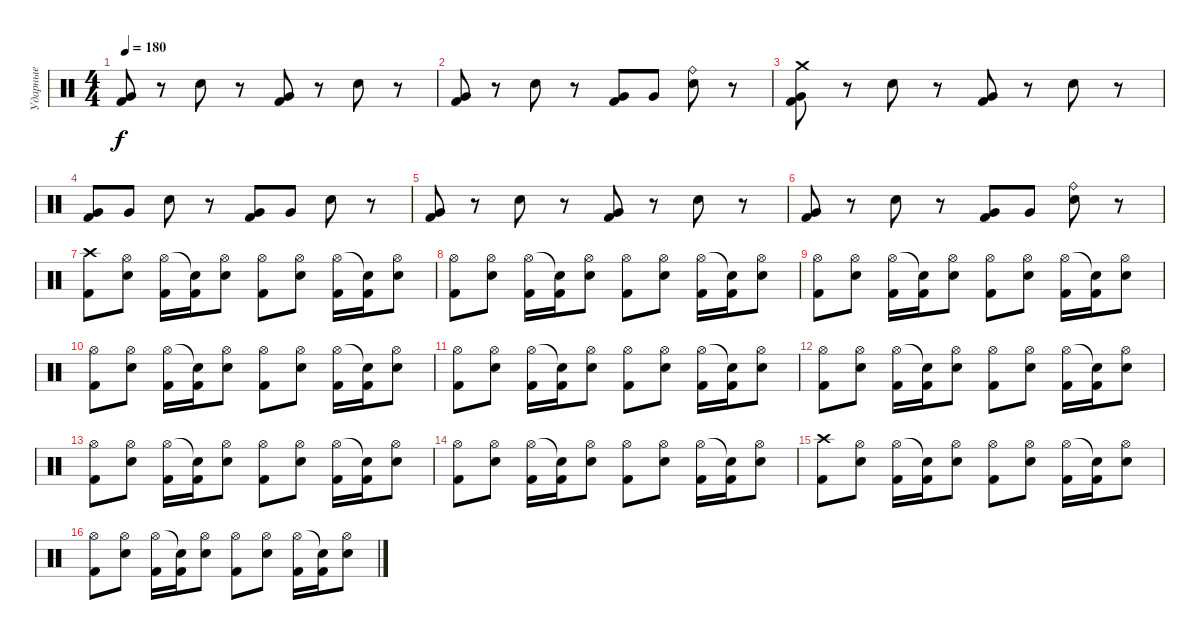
\track ("Ударные" "Ударные") {instrument percussion}
\staff {score}
\articulation defaults
\ts (4 4)
\tempo 180
\clef neutral
\ks c
("Very Low Tom (hit)" "Kick (hit) 2").8{dy f} r.8 "Electric Snare (hit)".8 r.8 ("Very Low Tom (hit)" "Kick (hit) 2").8 r.8 "Electric Snare (hit)".8 r.8 |
("Very Low Tom (hit)" "Kick (hit) 2").8 r.8 "Electric Snare (hit)".8 r.8 ("Very Low Tom (hit)" "Kick (hit) 2").8 "Very Low Tom (hit)".8 ("Ride (bell)" "Electric Snare (hit)").8 r.8 |
("Crash medium (hit)" "Very Low Tom (hit)" "Kick (hit) 2").8 r.8 "Electric Snare (hit)".8 r.8 ("Very Low Tom (hit)" "Kick (hit) 2").8 r.8 "Electric Snare (hit)".8 r.8 |
("Very Low Tom (hit)" "Kick (hit) 2").8 "Very Low Tom (hit)".8 "Electric Snare (hit)".8 r.8 ("Very Low Tom (hit)" "Kick (hit) 2").8 "Very Low Tom (hit)".8 "Electric Snare (hit)".8 r.8 |
("Very Low Tom (hit)" "Kick (hit) 2").8 r.8 "Electric Snare (hit)".8 r.8 ("Very Low Tom (hit)" "Kick (hit) 2").8 r.8 "Electric Snare (hit)".8 r.8 |
("Very Low Tom (hit)" "Kick (hit) 2").8 r.8 "Electric Snare (hit)".8 r.8 ("Very Low Tom (hit)" "Kick (hit) 2").8 "Very Low Tom (hit)".8 ("Ride (bell)" "Electric Snare (hit)").8 r.8 |
("Crash high (hit)" "Kick (hit) 2").8 ("Hi-Hat (open)" "Snare (hit) 2").8 ("Hi-Hat (open)" "Kick (hit) 2").16 ("Snare (hit)"{t} "Kick (hit) 2").16 ("Hi-Hat (open)" "Snare (hit) 2").8 ("Hi-Hat (open)" "Kick (hit) 2").8 ("Hi-Hat (open)" "Snare (hit) 2").8 ("Hi-Hat (open)" "Kick (hit) 2").16 ("Snare (hit)"{t} "Kick (hit) 2").16 ("Hi-Hat (open)" "Snare (hit) 2").8 |
("Hi-Hat (open)" "Kick (hit) 2").8 ("Hi-Hat (open)" "Snare (hit) 2").8 ("Hi-Hat (open)" "Kick (hit) 2").16 ("Snare (hit)"{t} "Kick (hit) 2").16 ("Hi-Hat (open)" "Snare (hit) 2").8 ("Hi-Hat (open)" "Kick (hit) 2").8 ("Hi-Hat (open)" "Snare (hit) 2").8 ("Hi-Hat (open)" "Kick (hit) 2").16 ("Snare (hit)"{t} "Kick (hit) 2").16 ("Hi-Hat (open)" "Snare (hit) 2").8 |
("Hi-Hat (open)" "Kick (hit) 2").8 ("Hi-Hat (open)" "Snare (hit) 2").8 ("Hi-Hat (open)" "Kick (hit) 2").16 ("Snare (hit)"{t} "Kick (hit) 2").16 ("Hi-Hat (open)" "Snare (hit) 2").8 ("Hi-Hat (open)" "Kick (hit) 2").8 ("Hi-Hat (open)" "Snare (hit) 2").8 ("Hi-Hat (open)" "Kick (hit) 2").16 ("Snare (hit)"{t} "Kick (hit) 2").16 ("Hi-Hat (open)" "Snare (hit) 2").8 |
("Hi-Hat (open)" "Kick (hit) 2").8 ("Hi-Hat (open)" "Snare (hit) 2").8 ("Hi-Hat (open)" "Kick (hit) 2").16 ("Snare (hit)"{t} "Kick (hit) 2").16 ("Hi-Hat (open)" "Snare (hit) 2").8 ("Hi-Hat (open)" "Kick (hit) 2").8 ("Hi-Hat (open)" "Snare (hit) 2").8 ("Hi-Hat (open)" "Kick (hit) 2").16 ("Snare (hit)"{t} "Kick (hit) 2").16 ("Hi-Hat (open)" "Snare (hit) 2").8 |
("Hi-Hat (open)" "Kick (hit) 2").8 ("Hi-Hat (open)" "Snare (hit) 2").8 ("Hi-Hat (open)" "Kick (hit) 2").16 ("Snare (hit)"{t} "Kick (hit) 2").16 ("Hi-Hat (open)" "Snare (hit) 2").8 ("Hi-Hat (open)" "Kick (hit) 2").8 ("Hi-Hat (open)" "Snare (hit) 2").8 ("Hi-Hat (open)" "Kick (hit) 2").16 ("Snare (hit)"{t} "Kick (hit) 2").16 ("Hi-Hat (open)" "Snare (hit) 2").8 |
("Hi-Hat (open)" "Kick (hit) 2").8 ("Hi-Hat (open)" "Snare (hit) 2").8 ("Hi-Hat (open)" "Kick (hit) 2").16 ("Snare (hit)"{t} "Kick (hit) 2").16 ("Hi-Hat (open)" "Snare (hit) 2").8 ("Hi-Hat (open)" "Kick (hit) 2").8 ("Hi-Hat (open)" "Snare (hit) 2").8 ("Hi-Hat (open)" "Kick (hit) 2").16 ("Snare (hit)"{t} "Kick (hit) 2").16 ("Hi-Hat (open)" "Snare (hit) 2").8 |
("Hi-Hat (open)" "Kick (hit) 2").8 ("Hi-Hat (open)" "Snare (hit) 2").8 ("Hi-Hat (open)" "Kick (hit) 2").16 ("Snare (hit)"{t} "Kick (hit) 2").16 ("Hi-Hat (open)" "Snare (hit) 2").8 ("Hi-Hat (open)" "Kick (hit) 2").8 ("Hi-Hat (open)" "Snare (hit) 2").8 ("Hi-Hat (open)" "Kick (hit) 2").16 ("Snare (hit)"{t} "Kick (hit) 2").16 ("Hi-Hat (open)" "Snare (hit) 2").8 |
("Hi-Hat (open)" "Kick (hit) 2").8 ("Hi-Hat (open)" "Snare (hit) 2").8 ("Hi-Hat (open)" "Kick (hit) 2").16 ("Snare (hit)"{t} "Kick (hit) 2").16 ("Hi-Hat (open)" "Snare (hit) 2").8 ("Hi-Hat (open)" "Kick (hit) 2").8 ("Hi-Hat (open)" "Snare (hit) 2").8 ("Hi-Hat (open)" "Kick (hit) 2").16 ("Snare (hit)"{t} "Kick (hit) 2").16 ("Hi-Hat (open)" "Snare (hit) 2").8 |
("Crash high (hit)" "Kick (hit) 2").8 ("Hi-Hat (open)" "Snare (hit) 2").8 ("Hi-Hat (open)" "Kick (hit) 2").16 ("Snare (hit)"{t} "Kick (hit) 2").16 ("Hi-Hat (open)" "Snare (hit) 2").8 ("Hi-Hat (open)" "Kick (hit) 2").8 ("Hi-Hat (open)" "Snare (hit) 2").8 ("Hi-Hat (open)" "Kick (hit) 2").16 ("Snare (hit)"{t} "Kick (hit) 2").16 ("Hi-Hat (open)" "Snare (hit) 2").8 |
("Hi-Hat (open)" "Kick (hit) 2").8 ("Hi-Hat (open)" "Snare (hit) 2").8 ("Hi-Hat (open)" "Kick (hit) 2").16 ("Snare (hit)"{t} "Kick (hit) 2").16 ("Hi-Hat (open)" "Snare (hit) 2").8 ("Hi-Hat (open)" "Kick (hit) 2").8 ("Hi-Hat (open)" "Snare (hit) 2").8 ("Hi-Hat (open)" "Kick (hit) 2").16 ("Snare (hit)"{t} "Kick (hit) 2").16 ("Hi-Hat (open)" "Snare (hit) 2").8
